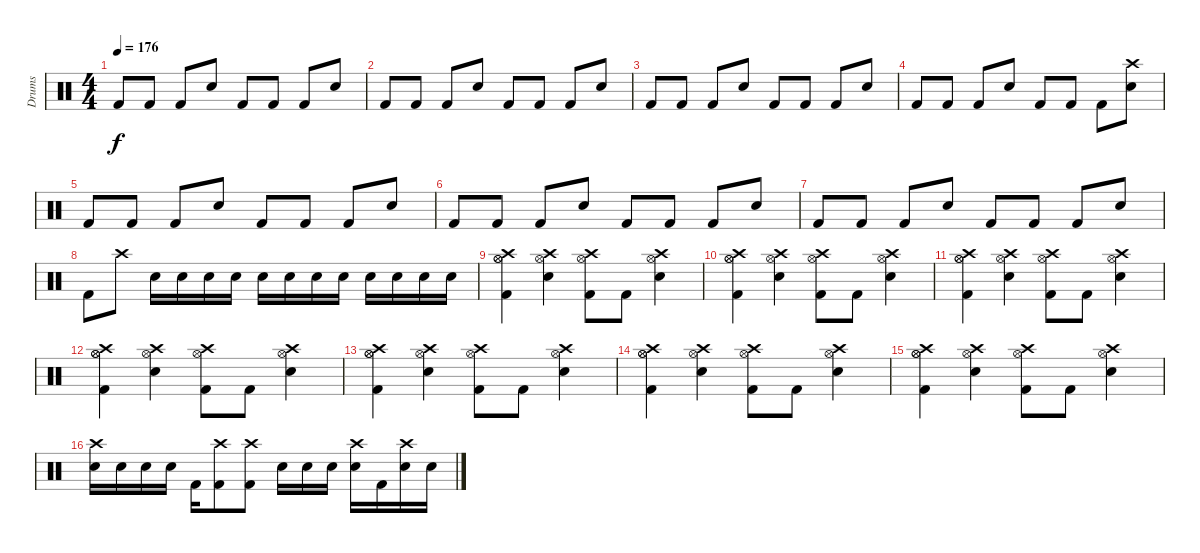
\track ("Drums" "Drums") {instrument percussion}
\staff {score}
\articulation defaults
\ts (4 4)
\tempo 176
\clef neutral
\ks c "Kick (hit) 2".8{dy f} "Kick (hit) 2".8 "Kick (hit) 2".8 "Snare (hit) 2".8 "Kick (hit) 2".8 "Kick (hit) 2".8 "Kick (hit) 2".8 "Snare (hit) 2".8
|
"Kick (hit) 2".8 "Kick (hit) 2".8 "Kick (hit) 2".8 "Snare (hit) 2".8 "Kick (hit) 2".8 "Kick (hit) 2".8 "Kick (hit) 2".8 "Snare (hit) 2".8 |
"Kick (hit) 2".8 "Kick (hit) 2".8 "Kick (hit) 2".8 "Snare (hit) 2".8 "Kick (hit) 2".8 "Kick (hit) 2".8 "Kick (hit) 2".8 "Snare (hit) 2".8 |
"Kick (hit) 2".8 "Kick (hit) 2".8 "Kick (hit) 2".8 "Snare (hit) 2".8 "Kick (hit) 2".8 "Kick (hit) 2".8 "Kick (hit) 2".8 ("Crash high (hit)" "Snare (hit) 2").8 |
"Kick (hit) 2".8 "Kick (hit) 2".8 "Kick (hit) 2".8 "Snare (hit) 2".8 "Kick (hit) 2".8 "Kick (hit) 2".8 "Kick (hit) 2".8 "Snare (hit) 2".8 |
"Kick (hit) 2".8 "Kick (hit) 2".8 "Kick (hit) 2".8 "Snare (hit) 2".8 "Kick (hit) 2".8 "Kick (hit) 2".8 "Kick (hit) 2".8 "Snare (hit) 2".8 |
"Kick (hit) 2".8 "Kick (hit) 2".8 "Kick (hit) 2".8 "Snare (hit) 2".8 "Kick (hit) 2".8 "Kick (hit) 2".8 "Kick (hit) 2".8 "Snare (hit) 2".8 |
"Kick (hit) 2".8 "Crash high (hit)".8 "Snare (hit) 2".16 "Snare (hit) 2".16 "Snare (hit) 2".16 "Snare (hit) 2".16 "Snare (hit) 2".16 "Snare (hit) 2".16 "Snare (hit) 2".16 "Snare (hit) 2".16 "Snare (hit) 2".16 "Snare (hit) 2".16 "Snare (hit) 2".16 "Snare (hit) 2".16 |
("Kick (hit) 2" "Hi-Hat (open)" "Hi-Hat (open)" "Crash high (hit)").4 ("Crash high (hit)" "Hi-Hat (open)" "Snare (hit) 2").4 ("Hi-Hat (open)" "Crash high (hit)" "Kick (hit) 2").8 "Kick (hit) 2".8 ("Hi-Hat (open)" "Crash high (hit)" "Snare (hit) 2").4 |
("Kick (hit) 2" "Hi-Hat (open)" "Hi-Hat (open)" "Crash high (hit)").4 ("Crash high (hit)" "Hi-Hat (open)" "Snare (hit) 2").4 ("Hi-Hat (open)" "Crash high (hit)" "Kick (hit) 2").8 "Kick (hit) 2".8 ("Hi-Hat (open)" "Crash high (hit)" "Snare (hit) 2").4 |
("Kick (hit) 2" "Hi-Hat (open)" "Hi-Hat (open)" "Crash high (hit)").4 ("Crash high (hit)" "Hi-Hat (open)" "Snare (hit) 2").4 ("Hi-Hat (open)" "Crash high (hit)" "Kick (hit) 2").8 "Kick (hit) 2".8 ("Hi-Hat (open)" "Crash high (hit)" "Snare (hit) 2").4 |
("Kick (hit) 2" "Hi-Hat (open)" "Hi-Hat (open)" "Crash high (hit)").4 ("Crash high (hit)" "Hi-Hat (open)" "Snare (hit) 2").4 ("Hi-Hat (open)" "Crash high (hit)" "Kick (hit) 2").8 "Kick (hit) 2".8 ("Hi-Hat (open)" "Crash high (hit)" "Snare (hit) 2").4 |
("Kick (hit) 2" "Hi-Hat (open)" "Hi-Hat (open)" "Crash high (hit)").4 ("Crash high (hit)" "Hi-Hat (open)" "Snare (hit) 2").4 ("Hi-Hat (open)" "Crash high (hit)" "Kick (hit) 2").8 "Kick (hit) 2".8 ("Hi-Hat (open)" "Crash high (hit)" "Snare (hit) 2").4 |
("Kick (hit) 2" "Hi-Hat (open)" "Hi-Hat (open)" "Crash high (hit)").4 ("Crash high (hit)" "Hi-Hat (open)" "Snare (hit) 2").4 ("Hi-Hat (open)" "Crash high (hit)" "Kick (hit) 2").8 "Kick (hit) 2".8 ("Hi-Hat (open)" "Crash high (hit)" "Snare (hit) 2").4 |
("Kick (hit) 2" "Hi-Hat (open)" "Hi-Hat (open)" "Crash high (hit)").4 ("Crash high (hit)" "Hi-Hat (open)" "Snare (hit) 2").4 ("Hi-Hat (open)" "Crash high (hit)" "Kick (hit) 2").8 "Kick (hit) 2".8 ("Hi-Hat (open)" "Crash high (hit)" "Snare (hit) 2").4 |
("Crash high (hit)" "Snare (hit) 2").16 "Snare (hit) 2".16 "Snare (hit) 2".16 "Snare (hit) 2".16 "Kick (hit) 2".16 ("Crash high (hit)" "Kick (hit) 2").8 ("Crash high (hit)" "Kick (hit) 2").8 "Snare (hit) 2".16 "Snare (hit) 2".16 "Snare (hit) 2".16 ("Crash high (hit)" "Snare (hit) 2").16 "Kick (hit) 2".16 ("Crash high (hit)" "Snare (hit) 2").16 "Snare (hit) 2".16
